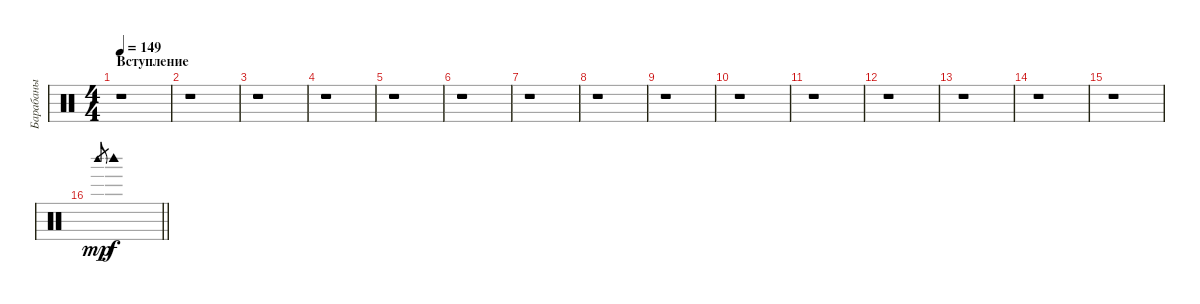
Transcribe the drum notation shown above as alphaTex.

\track ("Барабаны" "Барабаны") {instrument percussion}
\staff {score}
\articulation defaults
\ts (4 4)
\section ("" "Вступление")
\tempo 149
\clef neutral
\ks c
r.1{dy mp} |
r.1 |
r.1 |
r.1 |
r.1 |
r.1 |
r.1 |
r.1 |
r.1 |
r.1 |
r.1 |
r.1 |
r.1 |
r.1 |
r.1 |
\barLineRight lightlight "Woodblock high (hit)".8{gr} "Woodblock high (hit)".1{dy f}
